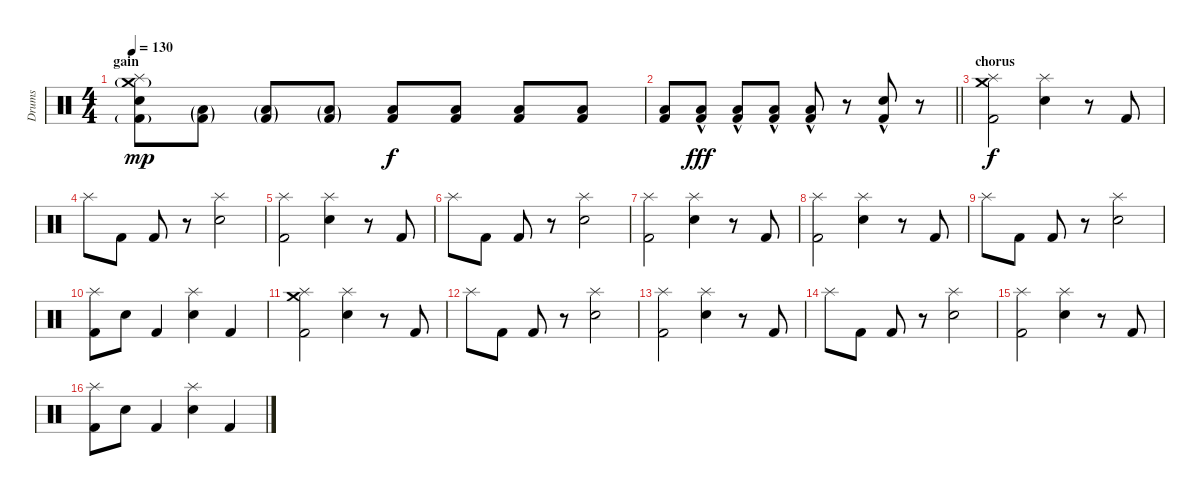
\track ("Drums" "Drums") {instrument percussion}
\staff {score}
\articulation defaults
\ts (4 4)
\section ("" "gain")
\tempo 130
\clef neutral
\ks c
("Splash (hit)" "Kick (hit) 2"{g} "Crash medium (hit)"{g} "Electric Snare (hit)").8{dy mp volume 16} ("Kick (hit) 2"{g} "Low Floor Tom (hit)"{g}).8 ("Kick (hit) 2"{g} "Low Floor Tom (hit)"{g}).8 ("Kick (hit) 2"{g} "Low Floor Tom (hit)"{g}).8 ("Kick (hit) 2" "Low Floor Tom (hit)").8{dy f} ("Kick (hit) 2" "Low Floor Tom (hit)").8 ("Kick (hit) 2" "Low Floor Tom (hit)").8 ("Kick (hit) 2" "Low Floor Tom (hit)").8 |
\barLineRight lightlight
("Kick (hit) 2" "Low Floor Tom (hit)").8 ("Kick (hit) 2"{hac} "Low Floor Tom (hit)"{hac}).8{dy fff} ("Kick (hit) 2"{hac} "Low Floor Tom (hit)"{hac}).8 ("Kick (hit) 2"{hac} "Low Floor Tom (hit)"{hac}).8 ("Kick (hit) 2"{hac} "Low Floor Tom (hit)"{hac}).8 r.8 ("Kick (hit) 2"{hac} "Electric Snare (hit)"{hac}).8 r.8 |
\section ("" "chorus")
("Crash medium (hit)" "Splash (hit)" "Kick (hit) 2").2{dy f} ("Splash (hit)" "Electric Snare (hit)").4 r.8 "Kick (hit) 2".8 |
"Splash (hit)".8 "Kick (hit) 2".8 "Kick (hit) 2".8 r.8 ("Splash (hit)" "Electric Snare (hit)").2 |
("Splash (hit)" "Kick (hit) 2").2 ("Splash (hit)" "Electric Snare (hit)").4 r.8 "Kick (hit) 2".8 |
"Splash (hit)".8 "Kick (hit) 2".8 "Kick (hit) 2".8 r.8 ("Splash (hit)" "Electric Snare (hit)").2 |
("Splash (hit)" "Kick (hit) 2").2 ("Splash (hit)" "Electric Snare (hit)").4 r.8 "Kick (hit) 2".8 |
("Splash (hit)" "Kick (hit) 2").2 ("Splash (hit)" "Electric Snare (hit)").4 r.8 "Kick (hit) 2".8 |
"Splash (hit)".8 "Kick (hit) 2".8 "Kick (hit) 2".8 r.8 ("Splash (hit)" "Electric Snare (hit)").2 |
("Kick (hit) 2" "Splash (hit)").8 "Electric Snare (hit)".8 "Kick (hit) 2".4 ("Electric Snare (hit)" "Splash (hit)").4 "Kick (hit) 2".4 |
("Crash medium (hit)" "Splash (hit)" "Kick (hit) 2").2 ("Splash (hit)" "Electric Snare (hit)").4 r.8 "Kick (hit) 2".8 |
"Splash (hit)".8 "Kick (hit) 2".8 "Kick (hit) 2".8 r.8 ("Splash (hit)" "Electric Snare (hit)").2 |
("Splash (hit)" "Kick (hit) 2").2 ("Splash (hit)" "Electric Snare (hit)").4 r.8 "Kick (hit) 2".8 |
"Splash (hit)".8 "Kick (hit) 2".8 "Kick (hit) 2".8 r.8 ("Splash (hit)" "Electric Snare (hit)").2 |
("Splash (hit)" "Kick (hit) 2").2 ("Splash (hit)" "Electric Snare (hit)").4 r.8 "Kick (hit) 2".8 |
("Kick (hit) 2" "Splash (hit)").8 "Electric Snare (hit)".8 "Kick (hit) 2".4 ("Electric Snare (hit)" "Splash (hit)").4 "Kick (hit) 2".4
